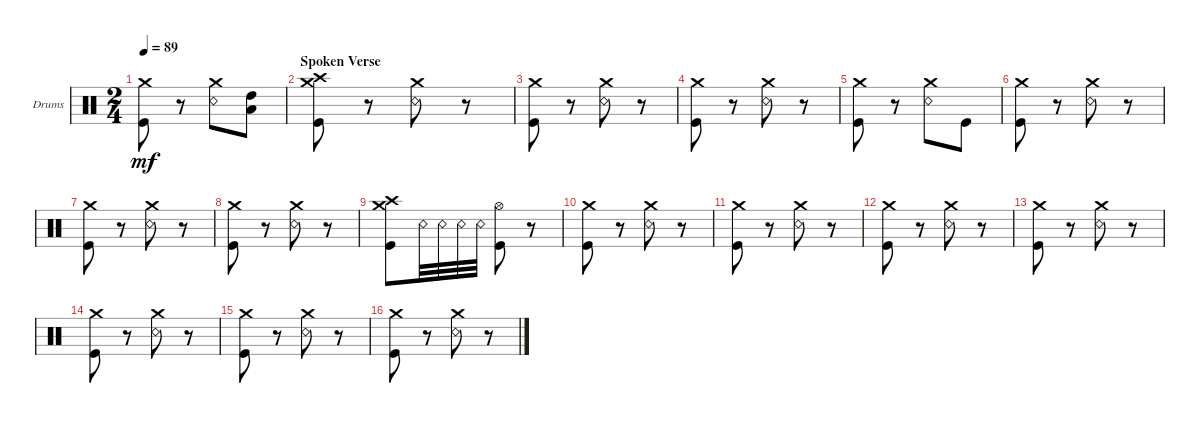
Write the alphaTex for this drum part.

\bracketExtendMode groupsimilarinstruments
\firstSystemTrackNameOrientation horizontal
\otherSystemsTrackNameOrientation horizontal
\track ("Ryo" "Drums") {instrument percussion}
\staff {score}
\articulation defaults
\ts (2 4)
\tempo 89
\clef neutral
\ks c
("Crash medium (hit)" "Kick (hit)").8{dy mf} r.8 ("Crash medium (hit)" "Snare (rim shot)").8 ("Low Tom (hit)" "High Tom (hit)").8 |
\section ("" "Spoken Verse")
("Kick (hit)" "Crash medium (hit)" "Crash high (hit)").8 r.8 ("Crash medium (hit)" "Snare (rim shot)").8 r.8 |
("Crash medium (hit)" "Kick (hit)").8 r.8 ("Crash medium (hit)" "Snare (rim shot)").8 r.8 |
("Kick (hit)" "Crash medium (hit)").8 r.8 ("Crash medium (hit)" "Snare (rim shot)").8 r.8 |
("Crash medium (hit)" "Kick (hit)").8 r.8 ("Crash medium (hit)" "Snare (rim shot)").8 "Kick (hit)".8 |
("Kick (hit)" "Crash medium (hit)").8 r.8 ("Crash medium (hit)" "Snare (rim shot)").8 r.8 |
("Crash medium (hit)" "Kick (hit)").8 r.8 ("Crash medium (hit)" "Snare (rim shot)").8 r.8 |
("Kick (hit)" "Crash medium (hit)").8 r.8 ("Crash medium (hit)" "Snare (rim shot)").8 r.8 |
("Kick (hit)" "Crash medium (hit)" "Crash high (hit)").8 "Snare (rim shot)".32 "Snare (rim shot)".32 "Snare (rim shot)".32 "Snare (rim shot)".32 ("Kick (hit)" "Hi-Hat (open)").8 r.8 |
("Kick (hit)" "Crash medium (hit)").8 r.8 ("Crash medium (hit)" "Snare (rim shot)").8 r.8 |
("Crash medium (hit)" "Kick (hit)").8 r.8 ("Crash medium (hit)" "Snare (rim shot)").8 r.8 |
("Crash medium (hit)" "Kick (hit)").8 r.8 ("Crash medium (hit)" "Snare (rim shot)").8 r.8 |
("Crash medium (hit)" "Kick (hit)").8 r.8 ("Crash medium (hit)" "Snare (rim shot)").8 r.8 |
("Kick (hit)" "Crash medium (hit)").8 r.8 ("Crash medium (hit)" "Snare (rim shot)").8 r.8 |
("Crash medium (hit)" "Kick (hit)").8 r.8 ("Crash medium (hit)" "Snare (rim shot)").8 r.8 |
("Crash medium (hit)" "Kick (hit)").8 r.8 ("Crash medium (hit)" "Snare (rim shot)").8 r.8
